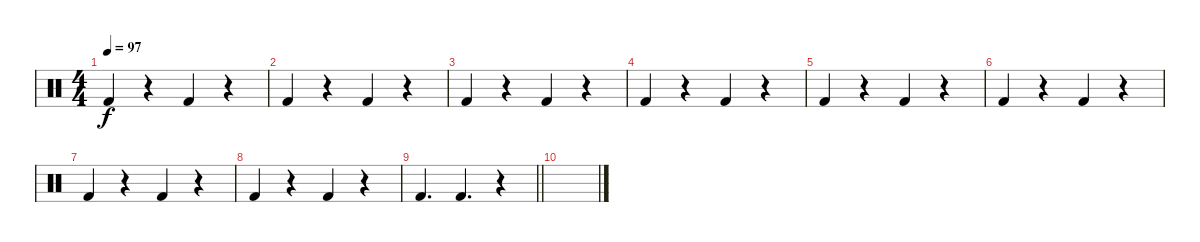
\track "" {instrument percussion}
\staff {score}
\articulation defaults
\ts (4 4)
\tempo 97
\clef neutral
\ks c "Kick (hit) 2".4{dy f}
r.4 "Kick (hit) 2".4 r.4 |
"Kick (hit) 2".4 r.4 "Kick (hit) 2".4 r.4 |
"Kick (hit) 2".4 r.4 "Kick (hit) 2".4 r.4 |
"Kick (hit) 2".4 r.4 "Kick (hit) 2".4 r.4 |
"Kick (hit) 2".4 r.4 "Kick (hit) 2".4 r.4 |
"Kick (hit) 2".4 r.4 "Kick (hit) 2".4 r.4 |
"Kick (hit) 2".4 r.4 "Kick (hit) 2".4 r.4 |
"Kick (hit) 2".4 r.4 "Kick (hit) 2".4 r.4 |
\barLineRight lightlight "Kick (hit) 2".4{d} "Kick (hit) 2".4{d}
r.4 |
\section ("" "")
